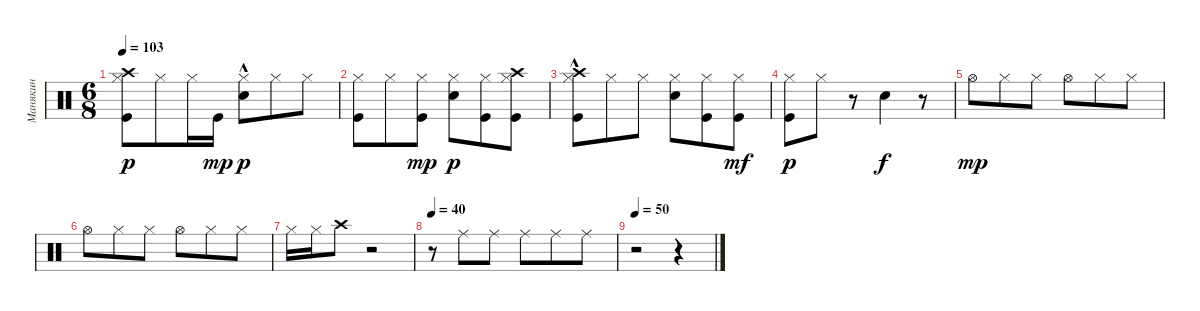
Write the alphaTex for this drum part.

\track ("Манякин" "Манякин") {instrument percussion}
\staff {score}
\articulation defaults
\ts (6 8)
\tempo 103
\clef neutral
\ks c
("Crash high (hit)" "Hi-Hat (closed)" "Kick (hit)").8{dy p} "Hi-Hat (closed)".8 "Hi-Hat (closed)".16 "Kick (hit)".16{dy mp} ("Hi-Hat (closed)" "Electric Snare (hit)"{hac}).8{dy p} "Hi-Hat (closed)".8 "Hi-Hat (closed)".8 |
("Hi-Hat (closed)" "Kick (hit)").8 "Hi-Hat (closed)".8 ("Hi-Hat (closed)" "Kick (hit)").8{dy mp} ("Hi-Hat (closed)" "Electric Snare (hit)").8{dy p} ("Hi-Hat (closed)" "Kick (hit)").8 ("Crash high (hit)" "Hi-Hat (closed)" "Kick (hit)").8 |
("Crash high (hit)" "Hi-Hat (closed)" "Kick (hit)"{hac}).8 "Hi-Hat (closed)".8 "Hi-Hat (closed)".8 ("Hi-Hat (closed)" "Electric Snare (hit)").8 ("Hi-Hat (closed)" "Kick (hit)").8 ("Hi-Hat (closed)" "Kick (hit)").8{dy mf} |
("Hi-Hat (closed)" "Kick (hit)").8{dy p} "Hi-Hat (closed)".8 r.8 "Electric Snare (hit)".4{dy f} r.8 |
"Hi-Hat (open)".8{dy mp} "Hi-Hat (closed)".8 "Hi-Hat (closed)".8 "Hi-Hat (open)".8 "Hi-Hat (closed)".8 "Hi-Hat (closed)".8 |
"Hi-Hat (open)".8 "Hi-Hat (closed)".8 "Hi-Hat (closed)".8 "Hi-Hat (open)".8 "Hi-Hat (closed)".8 "Hi-Hat (closed)".8 |
"Hi-Hat (closed)".16 "Hi-Hat (closed)".16 "Crash high (hit)".8 r.2 |
\tempo 69
\tempo 40
r.8 "Ride (middle)".8 "Ride (middle)".8 "Ride (middle)".8 "Ride (middle)".8 "Ride (middle)".8 |
\tempo 69
\tempo 50
r.2 r.4
